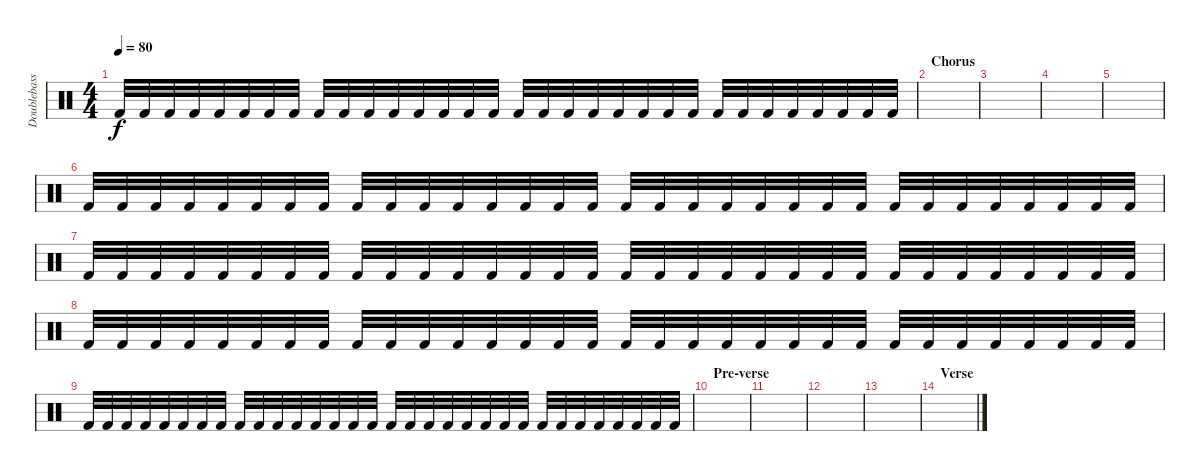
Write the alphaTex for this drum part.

\track ("Doublebass" "Doublebass") {instrument percussion}
\staff {score}
\articulation defaults
\ts (4 4)
\tempo 80
\clef neutral
\ks c "Kick (hit) 2".32{dy f} "Kick (hit) 2".32 "Kick (hit) 2".32 "Kick (hit) 2".32 "Kick (hit) 2".32 "Kick (hit) 2".32 "Kick (hit) 2".32 "Kick (hit) 2".32 "Kick (hit) 2".32 "Kick (hit) 2".32 "Kick (hit) 2".32 "Kick (hit) 2".32 "Kick (hit) 2".32 "Kick (hit) 2".32 "Kick (hit) 2".32 "Kick (hit) 2".32 "Kick (hit) 2".32 "Kick (hit) 2".32 "Kick (hit) 2".32 "Kick (hit) 2".32 "Kick (hit) 2".32 "Kick (hit) 2".32 "Kick (hit) 2".32 "Kick (hit) 2".32 "Kick (hit) 2".32 "Kick (hit) 2".32 "Kick (hit) 2".32 "Kick (hit) 2".32 "Kick (hit) 2".32 "Kick (hit) 2".32 "Kick (hit) 2".32 "Kick (hit) 2".32
|
\section ("" "Chorus")
|
|
|
|
"Kick (hit) 2".32 "Kick (hit) 2".32 "Kick (hit) 2".32 "Kick (hit) 2".32 "Kick (hit) 2".32 "Kick (hit) 2".32 "Kick (hit) 2".32 "Kick (hit) 2".32 "Kick (hit) 2".32 "Kick (hit) 2".32 "Kick (hit) 2".32 "Kick (hit) 2".32 "Kick (hit) 2".32 "Kick (hit) 2".32 "Kick (hit) 2".32 "Kick (hit) 2".32 "Kick (hit) 2".32 "Kick (hit) 2".32 "Kick (hit) 2".32 "Kick (hit) 2".32 "Kick (hit) 2".32 "Kick (hit) 2".32 "Kick (hit) 2".32 "Kick (hit) 2".32 "Kick (hit) 2".32 "Kick (hit) 2".32 "Kick (hit) 2".32 "Kick (hit) 2".32 "Kick (hit) 2".32 "Kick (hit) 2".32 "Kick (hit) 2".32 "Kick (hit) 2".32 |
"Kick (hit) 2".32 "Kick (hit) 2".32 "Kick (hit) 2".32 "Kick (hit) 2".32 "Kick (hit) 2".32 "Kick (hit) 2".32 "Kick (hit) 2".32 "Kick (hit) 2".32 "Kick (hit) 2".32 "Kick (hit) 2".32 "Kick (hit) 2".32 "Kick (hit) 2".32 "Kick (hit) 2".32 "Kick (hit) 2".32 "Kick (hit) 2".32 "Kick (hit) 2".32 "Kick (hit) 2".32 "Kick (hit) 2".32 "Kick (hit) 2".32 "Kick (hit) 2".32 "Kick (hit) 2".32 "Kick (hit) 2".32 "Kick (hit) 2".32 "Kick (hit) 2".32 "Kick (hit) 2".32 "Kick (hit) 2".32 "Kick (hit) 2".32 "Kick (hit) 2".32 "Kick (hit) 2".32 "Kick (hit) 2".32 "Kick (hit) 2".32 "Kick (hit) 2".32 |
"Kick (hit) 2".32 "Kick (hit) 2".32 "Kick (hit) 2".32 "Kick (hit) 2".32 "Kick (hit) 2".32 "Kick (hit) 2".32 "Kick (hit) 2".32 "Kick (hit) 2".32 "Kick (hit) 2".32 "Kick (hit) 2".32 "Kick (hit) 2".32 "Kick (hit) 2".32 "Kick (hit) 2".32 "Kick (hit) 2".32 "Kick (hit) 2".32 "Kick (hit) 2".32 "Kick (hit) 2".32 "Kick (hit) 2".32 "Kick (hit) 2".32 "Kick (hit) 2".32 "Kick (hit) 2".32 "Kick (hit) 2".32 "Kick (hit) 2".32 "Kick (hit) 2".32 "Kick (hit) 2".32 "Kick (hit) 2".32 "Kick (hit) 2".32 "Kick (hit) 2".32 "Kick (hit) 2".32 "Kick (hit) 2".32 "Kick (hit) 2".32 "Kick (hit) 2".32 |
"Kick (hit) 2".32 "Kick (hit) 2".32 "Kick (hit) 2".32 "Kick (hit) 2".32 "Kick (hit) 2".32 "Kick (hit) 2".32 "Kick (hit) 2".32 "Kick (hit) 2".32 "Kick (hit) 2".32 "Kick (hit) 2".32 "Kick (hit) 2".32 "Kick (hit) 2".32 "Kick (hit) 2".32 "Kick (hit) 2".32 "Kick (hit) 2".32 "Kick (hit) 2".32 "Kick (hit) 2".32 "Kick (hit) 2".32 "Kick (hit) 2".32 "Kick (hit) 2".32 "Kick (hit) 2".32 "Kick (hit) 2".32 "Kick (hit) 2".32 "Kick (hit) 2".32 "Kick (hit) 2".32 "Kick (hit) 2".32 "Kick (hit) 2".32 "Kick (hit) 2".32 "Kick (hit) 2".32 "Kick (hit) 2".32 "Kick (hit) 2".32 "Kick (hit) 2".32 |
\section ("" "Pre-verse")
|
|
|
|
\section ("" "Verse")
